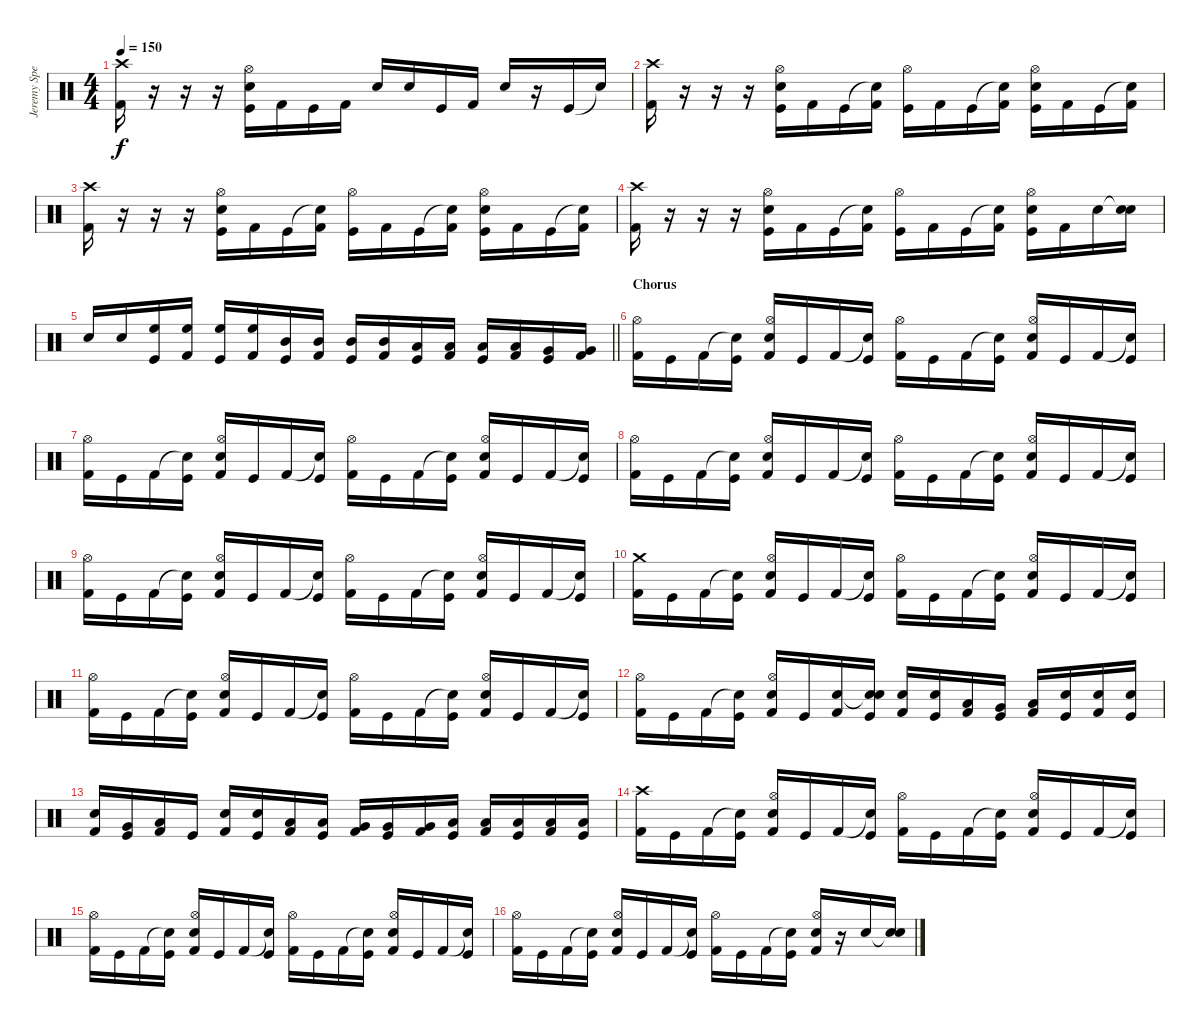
\track ("Jeremy Spencer" "Jeremy Spe") {instrument percussion}
\staff {score}
\articulation defaults
\ts (4 4)
\tempo 150
\clef neutral
\ks c
("Crash high (hit)" "Kick (hit) 2").16{dy f} r.16 r.16 r.16 ("Hi-Hat (open)" "Snare (hit) 2" "Kick (hit)").16 "Kick (hit) 2".16 "Kick (hit)".16 "Kick (hit) 2".16 "Snare (hit) 2".16 "Snare (hit) 2".16 "Kick (hit)".16 "Kick (hit) 2".16 "Snare (hit) 2".16 r.16 "Kick (hit)".16 "Snare (hit)"{t}.16 |
("Crash high (hit)" "Kick (hit) 2").16 r.16 r.16 r.16 ("Hi-Hat (open)" "Snare (hit) 2" "Kick (hit)").16 "Kick (hit) 2".16 "Kick (hit)".16 ("Snare (hit)"{t} "Kick (hit) 2").16 ("Hi-Hat (open)" "Kick (hit)").16 "Kick (hit) 2".16 "Kick (hit)".16 ("Snare (hit)"{t} "Kick (hit) 2").16 ("Hi-Hat (open)" "Snare (hit) 2" "Kick (hit)").16 "Kick (hit) 2".16 "Kick (hit)".16 ("Snare (hit)"{t} "Kick (hit) 2").16 |
("Crash high (hit)" "Kick (hit) 2").16 r.16 r.16 r.16 ("Hi-Hat (open)" "Snare (hit) 2" "Kick (hit)").16 "Kick (hit) 2".16 "Kick (hit)".16 ("Snare (hit)"{t} "Kick (hit) 2").16 ("Hi-Hat (open)" "Kick (hit)").16 "Kick (hit) 2".16 "Kick (hit)".16 ("Snare (hit)"{t} "Kick (hit) 2").16 ("Hi-Hat (open)" "Snare (hit) 2" "Kick (hit)").16 "Kick (hit) 2".16 "Kick (hit)".16 ("Snare (hit)"{t} "Kick (hit) 2").16 |
("Crash high (hit)" "Kick (hit) 2").16 r.16 r.16 r.16 ("Hi-Hat (open)" "Snare (hit) 2" "Kick (hit)").16 "Kick (hit) 2".16 "Kick (hit)".16 ("Snare (hit)"{t} "Kick (hit) 2").16 ("Hi-Hat (open)" "Kick (hit)").16 "Kick (hit) 2".16 "Kick (hit)".16 ("Snare (hit)"{t} "Kick (hit) 2").16 ("Hi-Hat (open)" "Snare (hit) 2" "Kick (hit)").16 "Kick (hit) 2".16 "Snare (hit) 2".16 ("Snare (hit)"{t} "Snare (hit) 2").16 |
\barLineRight lightlight "Snare (hit) 2".16 "Snare (hit) 2".16
("High Floor Tom (hit)" "Kick (hit)").16 ("High Floor Tom (hit)" "Kick (hit) 2").16 ("High Floor Tom (hit)" "Kick (hit)").16 ("High Floor Tom (hit)" "Kick (hit) 2").16 ("Mid Tom (hit)" "Kick (hit)").16 ("Mid Tom (hit)" "Kick (hit) 2").16 ("Mid Tom (hit)" "Kick (hit)").16 ("Mid Tom (hit)" "Kick (hit) 2").16 ("Low Tom (hit)" "Kick (hit)").16 ("Low Tom (hit)" "Kick (hit) 2").16 ("Low Tom (hit)" "Kick (hit)").16 ("Low Tom (hit)" "Kick (hit) 2").16 ("Very Low Tom (hit)" "Kick (hit)").16 ("Very Low Tom (hit)" "Kick (hit) 2").16 |
\section ("" "Chorus")
("Hi-Hat (open)" "Kick (hit) 2").16 "Kick (hit)".16 "Kick (hit) 2".16 ("Snare (hit)"{t} "Kick (hit)").16 ("Hi-Hat (open)" "Snare (hit) 2" "Kick (hit) 2").16 "Kick (hit)".16 "Kick (hit) 2".16 ("Snare (hit)"{t} "Kick (hit)").16 ("Hi-Hat (open)" "Kick (hit) 2").16 "Kick (hit)".16 "Kick (hit) 2".16 ("Snare (hit)"{t} "Kick (hit)").16 ("Hi-Hat (open)" "Snare (hit) 2" "Kick (hit) 2").16 "Kick (hit)".16 "Kick (hit) 2".16 ("Snare (hit)"{t} "Kick (hit)").16 |
("Hi-Hat (open)" "Kick (hit) 2").16 "Kick (hit)".16 "Kick (hit) 2".16 ("Snare (hit)"{t} "Kick (hit)").16 ("Hi-Hat (open)" "Snare (hit) 2" "Kick (hit) 2").16 "Kick (hit)".16 "Kick (hit) 2".16 ("Snare (hit)"{t} "Kick (hit)").16 ("Hi-Hat (open)" "Kick (hit) 2").16 "Kick (hit)".16 "Kick (hit) 2".16 ("Snare (hit)"{t} "Kick (hit)").16 ("Hi-Hat (open)" "Snare (hit) 2" "Kick (hit) 2").16 "Kick (hit)".16 "Kick (hit) 2".16 ("Snare (hit)"{t} "Kick (hit)").16 |
("Hi-Hat (open)" "Kick (hit) 2").16 "Kick (hit)".16 "Kick (hit) 2".16 ("Snare (hit)"{t} "Kick (hit)").16 ("Hi-Hat (open)" "Snare (hit) 2" "Kick (hit) 2").16 "Kick (hit)".16 "Kick (hit) 2".16 ("Snare (hit)"{t} "Kick (hit)").16 ("Hi-Hat (open)" "Kick (hit) 2").16 "Kick (hit)".16 "Kick (hit) 2".16 ("Snare (hit)"{t} "Kick (hit)").16 ("Hi-Hat (open)" "Snare (hit) 2" "Kick (hit) 2").16 "Kick (hit)".16 "Kick (hit) 2".16 ("Snare (hit)"{t} "Kick (hit)").16 |
("Hi-Hat (open)" "Kick (hit) 2").16 "Kick (hit)".16 "Kick (hit) 2".16 ("Snare (hit)"{t} "Kick (hit)").16 ("Hi-Hat (open)" "Snare (hit) 2" "Kick (hit) 2").16 "Kick (hit)".16 "Kick (hit) 2".16 ("Snare (hit)"{t} "Kick (hit)").16 ("Hi-Hat (open)" "Kick (hit) 2").16 "Kick (hit)".16 "Kick (hit) 2".16 ("Snare (hit)"{t} "Kick (hit)").16 ("Hi-Hat (open)" "Snare (hit) 2" "Kick (hit) 2").16 "Kick (hit)".16 "Kick (hit) 2".16 ("Snare (hit)"{t} "Kick (hit)").16 |
("Crash medium (hit)" "Kick (hit) 2").16 "Kick (hit)".16 "Kick (hit) 2".16 ("Snare (hit)"{t} "Kick (hit)").16 ("Hi-Hat (open)" "Snare (hit) 2" "Kick (hit) 2").16 "Kick (hit)".16 "Kick (hit) 2".16 ("Snare (hit)"{t} "Kick (hit)").16 ("Hi-Hat (open)" "Kick (hit) 2").16 "Kick (hit)".16 "Kick (hit) 2".16 ("Snare (hit)"{t} "Kick (hit)").16 ("Hi-Hat (open)" "Snare (hit) 2" "Kick (hit) 2").16 "Kick (hit)".16 "Kick (hit) 2".16 ("Snare (hit)"{t} "Kick (hit)").16 |
("Hi-Hat (open)" "Kick (hit) 2").16 "Kick (hit)".16 "Kick (hit) 2".16 ("Snare (hit)"{t} "Kick (hit)").16 ("Hi-Hat (open)" "Snare (hit) 2" "Kick (hit) 2").16 "Kick (hit)".16 "Kick (hit) 2".16 ("Snare (hit)"{t} "Kick (hit)").16 ("Hi-Hat (open)" "Kick (hit) 2").16 "Kick (hit)".16 "Kick (hit) 2".16 ("Snare (hit)"{t} "Kick (hit)").16 ("Hi-Hat (open)" "Snare (hit) 2" "Kick (hit) 2").16 "Kick (hit)".16 "Kick (hit) 2".16 ("Snare (hit)"{t} "Kick (hit)").16 |
("Hi-Hat (open)" "Kick (hit) 2").16 "Kick (hit)".16 "Kick (hit) 2".16 ("Snare (hit)"{t} "Kick (hit)").16 ("Hi-Hat (open)" "Snare (hit) 2" "Kick (hit) 2").16 "Kick (hit)".16 ("Snare (hit) 2" "Kick (hit) 2").16 ("Snare (hit)"{t} "Snare (hit) 2" "Kick (hit)").16 ("Snare (hit) 2" "Kick (hit) 2").16 ("Snare (hit) 2" "Kick (hit)").16 ("Low Tom (hit)" "Kick (hit) 2").16 ("Very Low Tom (hit)" "Kick (hit)").16 ("Low Floor Tom (hit)" "Kick (hit) 2").16 ("Snare (hit) 2" "Kick (hit)").16 ("Snare (hit) 2" "Kick (hit) 2").16 ("Snare (hit) 2" "Kick (hit)").16 |
("Snare (hit) 2" "Kick (hit) 2").16 ("Very Low Tom (hit)" "Kick (hit)").16 ("Low Floor Tom (hit)" "Kick (hit) 2").16 "Kick (hit)".16 ("Snare (hit) 2" "Kick (hit) 2").16 ("Snare (hit) 2" "Kick (hit)").16 ("Low Tom (hit)" "Kick (hit) 2").16 ("Low Tom (hit)" "Kick (hit)").16 ("Very Low Tom (hit)" "Kick (hit) 2").16 ("Very Low Tom (hit)" "Kick (hit)").16 ("Very Low Tom (hit)" "Kick (hit) 2").16 ("Low Floor Tom (hit)" "Kick (hit)").16 ("Low Floor Tom (hit)" "Kick (hit) 2").16 ("Low Floor Tom (hit)" "Kick (hit)").16 ("Low Floor Tom (hit)" "Kick (hit) 2").16 ("Low Floor Tom (hit)" "Kick (hit)").16 |
("Crash high (hit)" "Kick (hit) 2").16 "Kick (hit)".16 "Kick (hit) 2".16 ("Snare (hit)"{t} "Kick (hit)").16 ("Hi-Hat (open)" "Snare (hit) 2" "Kick (hit) 2").16 "Kick (hit)".16 "Kick (hit) 2".16 ("Snare (hit)"{t} "Kick (hit)").16 ("Hi-Hat (open)" "Kick (hit) 2").16 "Kick (hit)".16 "Kick (hit) 2".16 ("Snare (hit)"{t} "Kick (hit)").16 ("Hi-Hat (open)" "Snare (hit) 2" "Kick (hit) 2").16 "Kick (hit)".16 "Kick (hit) 2".16 ("Snare (hit)"{t} "Kick (hit)").16 |
("Hi-Hat (open)" "Kick (hit) 2").16 "Kick (hit)".16 "Kick (hit) 2".16 ("Snare (hit)"{t} "Kick (hit)").16 ("Hi-Hat (open)" "Snare (hit) 2" "Kick (hit) 2").16 "Kick (hit)".16 "Kick (hit) 2".16 ("Snare (hit)"{t} "Kick (hit)").16 ("Hi-Hat (open)" "Kick (hit) 2").16 "Kick (hit)".16 "Kick (hit) 2".16 ("Snare (hit)"{t} "Kick (hit)").16 ("Hi-Hat (open)" "Snare (hit) 2" "Kick (hit) 2").16 "Kick (hit)".16 "Kick (hit) 2".16 ("Snare (hit)"{t} "Kick (hit)").16 |
("Hi-Hat (open)" "Kick (hit) 2").16 "Kick (hit)".16 "Kick (hit) 2".16 ("Snare (hit)"{t} "Kick (hit)").16 ("Hi-Hat (open)" "Snare (hit) 2" "Kick (hit) 2").16 "Kick (hit)".16 "Kick (hit) 2".16 ("Snare (hit)"{t} "Kick (hit)").16 ("Hi-Hat (open)" "Kick (hit) 2").16 "Kick (hit)".16 "Kick (hit) 2".16 ("Snare (hit)"{t} "Kick (hit)").16 ("Hi-Hat (open)" "Snare (hit) 2" "Kick (hit) 2").16 r.16 "Snare (hit) 2".16 ("Snare (hit)"{t} "Snare (hit) 2").16
